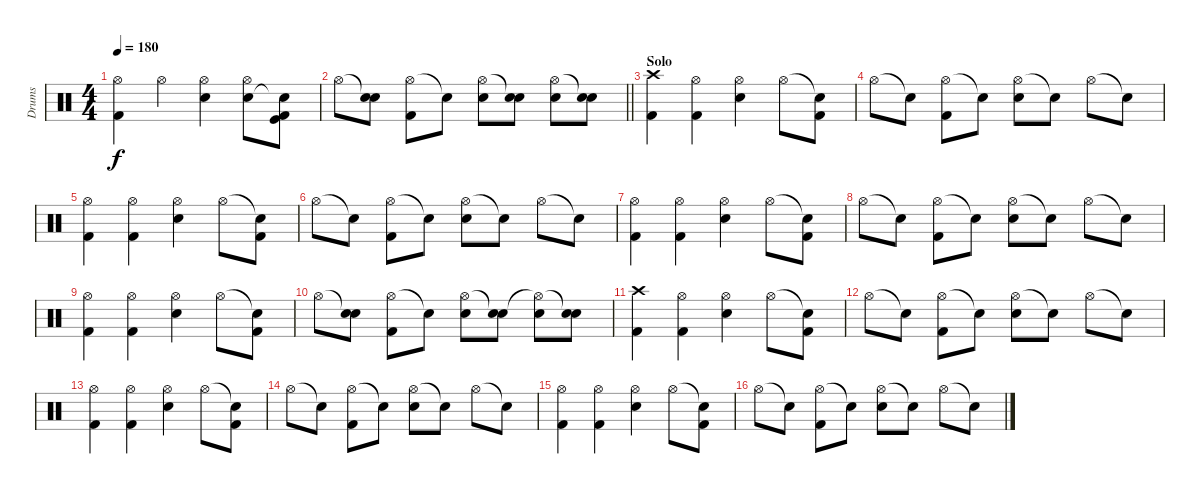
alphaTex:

\track ("Drums" "Drums") {instrument percussion}
\staff {score}
\articulation defaults
\ts (4 4)
\tempo 180
\clef neutral
\ks c
("Hi-Hat (open)" "Kick (hit) 2").4{dy f} "Hi-Hat (open)".4 ("Hi-Hat (open)" "Snare (hit) 2").4 ("Hi-Hat (open)" "Snare (hit) 2").8 ("Kick (hit)" "Snare (hit)"{t} "Kick (hit) 2").8 |
\barLineRight lightlight "Hi-Hat (open)".8
("Snare (hit)"{t} "Snare (hit) 2").8 ("Hi-Hat (open)" "Kick (hit) 2").8 "Snare (hit)"{t}.8 ("Hi-Hat (open)" "Snare (hit) 2").8 ("Snare (hit)"{t} "Snare (hit) 2").8 ("Hi-Hat (open)" "Snare (hit) 2").8 ("Snare (hit)"{t} "Snare (hit) 2").8 |
\section ("" "Solo")
("Crash high (hit)" "Kick (hit) 2").4 ("Hi-Hat (open)" "Kick (hit) 2").4 ("Hi-Hat (open)" "Snare (hit) 2").4 "Hi-Hat (open)".8 ("Snare (hit)"{t} "Kick (hit) 2").8 |
"Hi-Hat (open)".8 "Snare (hit)"{t}.8 ("Hi-Hat (open)" "Kick (hit) 2").8 "Snare (hit)"{t}.8 ("Hi-Hat (open)" "Snare (hit) 2").8 "Snare (hit)"{t}.8 "Hi-Hat (open)".8 "Snare (hit)"{t}.8 |
("Hi-Hat (open)" "Kick (hit) 2").4 ("Hi-Hat (open)" "Kick (hit) 2").4 ("Hi-Hat (open)" "Snare (hit) 2").4 "Hi-Hat (open)".8 ("Snare (hit)"{t} "Kick (hit) 2").8 |
"Hi-Hat (open)".8 "Snare (hit)"{t}.8 ("Hi-Hat (open)" "Kick (hit) 2").8 "Snare (hit)"{t}.8 ("Hi-Hat (open)" "Snare (hit) 2").8 "Snare (hit)"{t}.8 "Hi-Hat (open)".8 "Snare (hit)"{t}.8 |
("Hi-Hat (open)" "Kick (hit) 2").4 ("Hi-Hat (open)" "Kick (hit) 2").4 ("Hi-Hat (open)" "Snare (hit) 2").4 "Hi-Hat (open)".8 ("Snare (hit)"{t} "Kick (hit) 2").8 |
"Hi-Hat (open)".8 "Snare (hit)"{t}.8 ("Hi-Hat (open)" "Kick (hit) 2").8 "Snare (hit)"{t}.8 ("Hi-Hat (open)" "Snare (hit) 2").8 "Snare (hit)"{t}.8 "Hi-Hat (open)".8 "Snare (hit)"{t}.8 |
("Hi-Hat (open)" "Kick (hit) 2").4 ("Hi-Hat (open)" "Kick (hit) 2").4 ("Hi-Hat (open)" "Snare (hit) 2").4 "Hi-Hat (open)".8 ("Snare (hit)"{t} "Kick (hit) 2").8 |
"Hi-Hat (open)".8 ("Snare (hit)"{t} "Snare (hit) 2").8 ("Hi-Hat (open)" "Kick (hit) 2").8 "Snare (hit)"{t}.8 ("Hi-Hat (open)" "Snare (hit) 2").8 ("Snare (hit)"{t} "Snare (hit) 2").8 ("Hi-Hat (open)"{t} "Snare (hit) 2").8 ("Snare (hit)"{t} "Snare (hit) 2").8 |
("Crash high (hit)" "Kick (hit) 2").4 ("Hi-Hat (open)" "Kick (hit) 2").4 ("Hi-Hat (open)" "Snare (hit) 2").4 "Hi-Hat (open)".8 ("Snare (hit)"{t} "Kick (hit) 2").8 |
"Hi-Hat (open)".8 "Snare (hit)"{t}.8 ("Hi-Hat (open)" "Kick (hit) 2").8 "Snare (hit)"{t}.8 ("Hi-Hat (open)" "Snare (hit) 2").8 "Snare (hit)"{t}.8 "Hi-Hat (open)".8 "Snare (hit)"{t}.8 |
("Hi-Hat (open)" "Kick (hit) 2").4 ("Hi-Hat (open)" "Kick (hit) 2").4 ("Hi-Hat (open)" "Snare (hit) 2").4 "Hi-Hat (open)".8 ("Snare (hit)"{t} "Kick (hit) 2").8 |
"Hi-Hat (open)".8 "Snare (hit)"{t}.8 ("Hi-Hat (open)" "Kick (hit) 2").8 "Snare (hit)"{t}.8 ("Hi-Hat (open)" "Snare (hit) 2").8 "Snare (hit)"{t}.8 "Hi-Hat (open)".8 "Snare (hit)"{t}.8 |
("Hi-Hat (open)" "Kick (hit) 2").4 ("Hi-Hat (open)" "Kick (hit) 2").4 ("Hi-Hat (open)" "Snare (hit) 2").4 "Hi-Hat (open)".8 ("Snare (hit)"{t} "Kick (hit) 2").8 |
"Hi-Hat (open)".8 "Snare (hit)"{t}.8 ("Hi-Hat (open)" "Kick (hit) 2").8 "Snare (hit)"{t}.8 ("Hi-Hat (open)" "Snare (hit) 2").8 "Snare (hit)"{t}.8 "Hi-Hat (open)".8 "Snare (hit)"{t}.8
